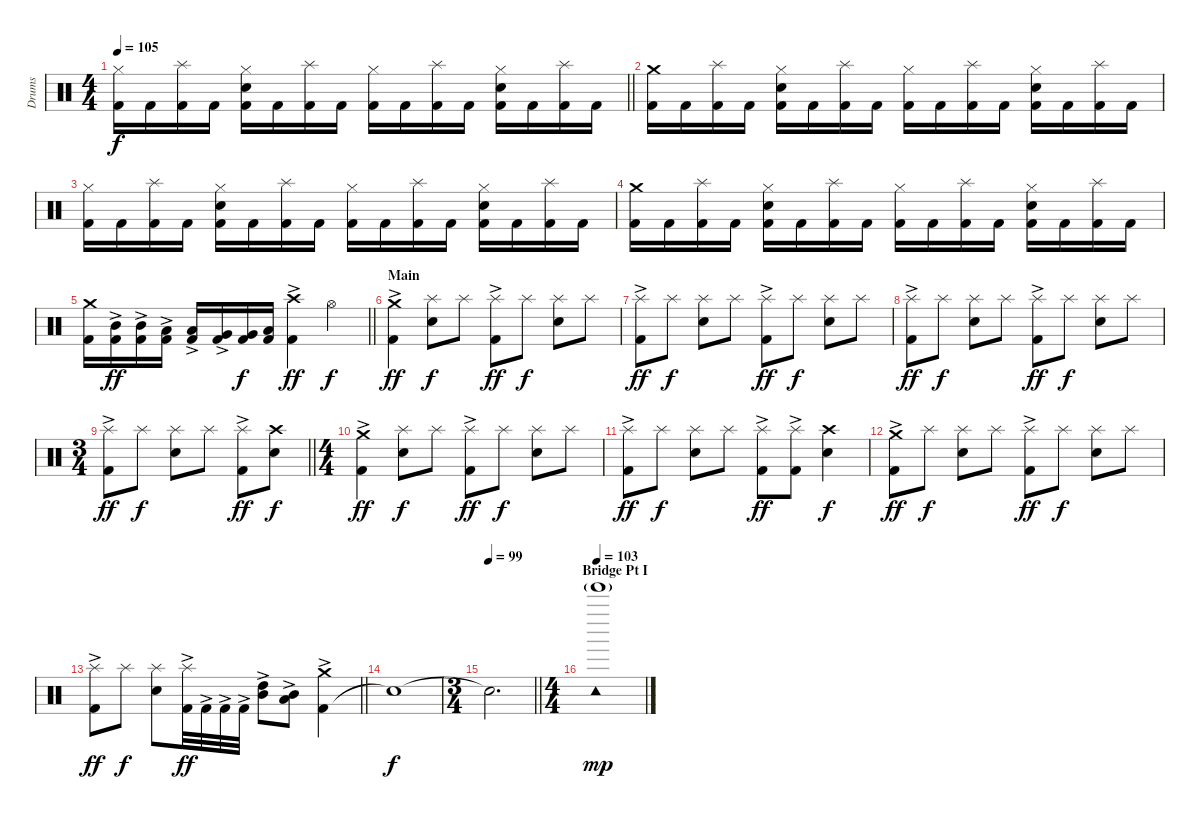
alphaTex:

\track ("Drums" "Drums") {instrument percussion}
\staff {score}
\articulation defaults
\ts (4 4)
\tempo 105
\clef neutral
\barLineRight lightlight
\ks c
("Kick (hit) 2" "Hi-Hat (closed)").16{dy f} "Kick (hit) 2".16 ("Kick (hit) 2" "Splash (hit)").16 "Kick (hit) 2".16 ("Kick (hit) 2" "Snare (hit) 2" "Hi-Hat (closed)").16 "Kick (hit) 2".16 ("Kick (hit) 2" "Splash (hit)").16 "Kick (hit) 2".16 ("Kick (hit) 2" "Hi-Hat (closed)").16 "Kick (hit) 2".16 ("Kick (hit) 2" "Splash (hit)").16 "Kick (hit) 2".16 ("Kick (hit) 2" "Snare (hit) 2" "Hi-Hat (closed)").16 "Kick (hit) 2".16 ("Kick (hit) 2" "Splash (hit)").16 "Kick (hit) 2".16 |
\section ("" "")
("Kick (hit) 2" "Crash medium (hit)").16 "Kick (hit) 2".16 ("Kick (hit) 2" "Splash (hit)").16 "Kick (hit) 2".16 ("Kick (hit) 2" "Snare (hit) 2" "Hi-Hat (closed)").16 "Kick (hit) 2".16 ("Kick (hit) 2" "Splash (hit)").16 "Kick (hit) 2".16 ("Kick (hit) 2" "Hi-Hat (closed)").16 "Kick (hit) 2".16 ("Kick (hit) 2" "Splash (hit)").16 "Kick (hit) 2".16 ("Kick (hit) 2" "Snare (hit) 2" "Hi-Hat (closed)").16 "Kick (hit) 2".16 ("Kick (hit) 2" "Splash (hit)").16 "Kick (hit) 2".16 |
("Kick (hit) 2" "Hi-Hat (closed)").16 "Kick (hit) 2".16 ("Kick (hit) 2" "Splash (hit)").16 "Kick (hit) 2".16 ("Kick (hit) 2" "Snare (hit) 2" "Hi-Hat (closed)").16 "Kick (hit) 2".16 ("Kick (hit) 2" "Splash (hit)").16 "Kick (hit) 2".16 ("Kick (hit) 2" "Hi-Hat (closed)").16 "Kick (hit) 2".16 ("Kick (hit) 2" "Splash (hit)").16 "Kick (hit) 2".16 ("Kick (hit) 2" "Snare (hit) 2" "Hi-Hat (closed)").16 "Kick (hit) 2".16 ("Kick (hit) 2" "Splash (hit)").16 "Kick (hit) 2".16 |
("Kick (hit) 2" "Crash medium (hit)").16 "Kick (hit) 2".16 ("Kick (hit) 2" "Splash (hit)").16 "Kick (hit) 2".16 ("Kick (hit) 2" "Snare (hit) 2" "Hi-Hat (closed)").16 "Kick (hit) 2".16 ("Kick (hit) 2" "Splash (hit)").16 "Kick (hit) 2".16 ("Kick (hit) 2" "Hi-Hat (closed)").16 "Kick (hit) 2".16 ("Kick (hit) 2" "Splash (hit)").16 "Kick (hit) 2".16 ("Kick (hit) 2" "Snare (hit) 2" "Hi-Hat (closed)").16 "Kick (hit) 2".16 ("Kick (hit) 2" "Splash (hit)").16 "Kick (hit) 2".16 |
\barLineRight lightlight
("Kick (hit) 2" "Crash medium (hit)").16 ("Kick (hit) 2" "Mid Tom (hit)"{ac}).16{dy ff} ("Kick (hit) 2" "Mid Tom (hit)"{ac}).16 ("Kick (hit) 2" "Low Tom (hit)"{ac}).16 ("Kick (hit) 2" "Low Tom (hit)"{ac}).16 ("Kick (hit) 2" "Very Low Tom (hit)"{ac}).16 ("Kick (hit) 2" "Very Low Tom (hit)").16{dy f} ("Kick (hit) 2" "Low Floor Tom (hit)").16 ("Kick (hit) 2"{ac} "Crash high (hit)").4{dy ff} "Hi-Hat (open)".4{dy f} |
\section ("" "Main")
("Kick (hit) 2"{ac} "Crash medium (hit)").4{dy ff} ("Snare (hit) 2" "Splash (hit)").8{dy f} "Splash (hit)".8 ("Kick (hit) 2"{ac} "Splash (hit)").8{dy ff} "Splash (hit)".8{dy f} ("Snare (hit) 2" "Splash (hit)").8 "Splash (hit)".8 |
("Kick (hit) 2"{ac} "Splash (hit)").8{dy ff} "Splash (hit)".8{dy f} ("Snare (hit) 2" "Splash (hit)").8 "Splash (hit)".8 ("Kick (hit) 2"{ac} "Splash (hit)").8{dy ff} "Splash (hit)".8{dy f} ("Snare (hit) 2" "Splash (hit)").8 "Splash (hit)".8 |
("Kick (hit) 2"{ac} "Splash (hit)").8{dy ff} "Splash (hit)".8{dy f} ("Snare (hit) 2" "Splash (hit)").8 "Splash (hit)".8 ("Kick (hit) 2"{ac} "Splash (hit)").8{dy ff} "Splash (hit)".8{dy f} ("Snare (hit) 2" "Splash (hit)").8 "Splash (hit)".8 |
\ts (3 4)
\barLineRight lightlight
("Kick (hit) 2"{ac} "Splash (hit)").8{dy ff} "Splash (hit)".8{dy f} ("Snare (hit) 2" "Splash (hit)").8 "Splash (hit)".8 ("Kick (hit) 2"{ac} "Splash (hit)").8{dy ff} ("Snare (hit) 2" "Crash high (hit)").8{dy f} |
\ts (4 4)
\section ("" "")
("Kick (hit) 2"{ac} "Crash medium (hit)").4{dy ff} ("Snare (hit) 2" "Splash (hit)").8{dy f} "Splash (hit)".8 ("Kick (hit) 2"{ac} "Splash (hit)").8{dy ff} "Splash (hit)".8{dy f} ("Snare (hit) 2" "Splash (hit)").8 "Splash (hit)".8 |
("Kick (hit) 2"{ac} "Splash (hit)").8{dy ff} "Splash (hit)".8{dy f} ("Snare (hit) 2" "Splash (hit)").8 "Splash (hit)".8 ("Kick (hit) 2"{ac} "Splash (hit)").8{dy ff} ("Kick (hit) 2"{ac} "Splash (hit)").8 ("Snare (hit) 2" "Crash high (hit)").4{dy f} |
("Kick (hit) 2"{ac} "Crash medium (hit)").8{dy ff} "Splash (hit)".8{dy f} ("Snare (hit) 2" "Splash (hit)").8 "Splash (hit)".8 ("Kick (hit) 2"{ac} "Splash (hit)").8{dy ff} "Splash (hit)".8{dy f} ("Snare (hit) 2" "Splash (hit)").8 "Splash (hit)".8 |
\barLineRight lightlight
("Kick (hit) 2"{ac} "Splash (hit)").8{dy ff} "Splash (hit)".8{dy f} ("Snare (hit) 2" "Splash (hit)").8 ("Kick (hit) 2"{ac} "Splash (hit)").32{dy ff} "Kick (hit) 2"{ac}.32 "Kick (hit) 2"{ac}.32 "Kick (hit) 2"{ac}.32 ("High Tom (hit)" "Mid Tom (hit)"{ac}).8 ("Mid Tom (hit)" "Low Tom (hit)"{ac}).8 ("Kick (hit) 2"{ac} "Crash medium (hit)").4 |
\section ("" "")
"Snare (hit)"{t}.1{dy f} |
\ts (3 4)
\tempo 99
\barLineRight lightlight "Snare (hit)"{t}.2{d}
|
\ts (4 4)
\section ("" "Bridge Pt I")
\tempo 103
("Tinkle Bell (hit)"{g} "Tambourine (hit)").1{dy mp}
